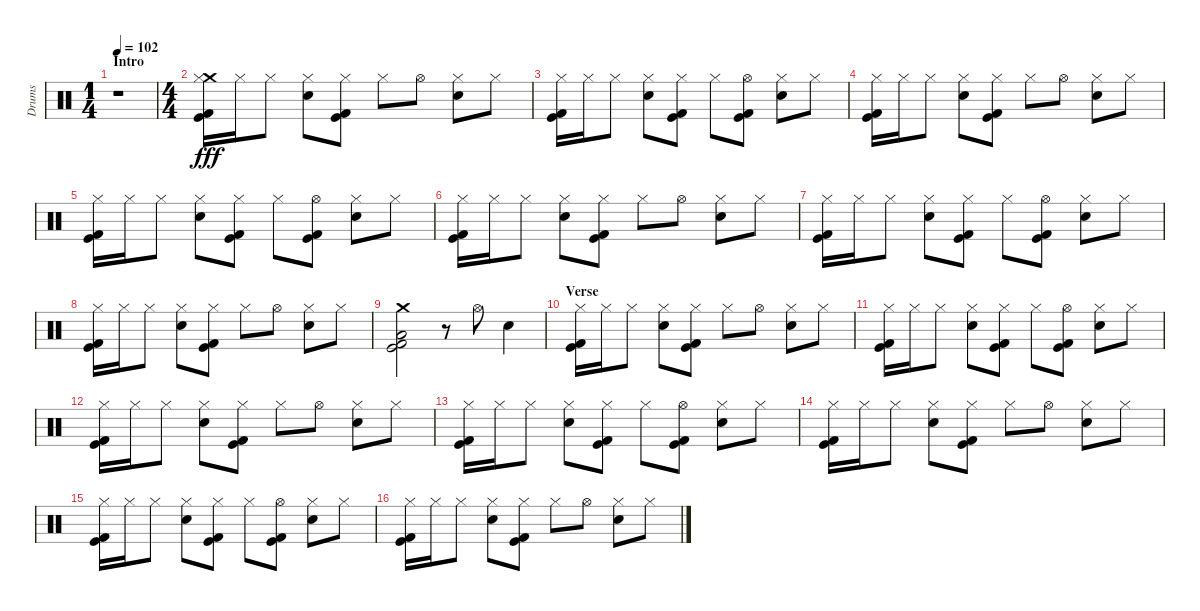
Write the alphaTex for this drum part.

\track ("Drums" "Drums") {instrument percussion}
\staff {score}
\articulation defaults
\ts (1 4)
\section ("" "Intro")
\tempo 102
\clef neutral
\ks c
r.1{dy fff} |
\ts (4 4)
("Crash medium (hit)" "Kick (hit) 2" "Kick (hit)" "Hi-Hat (closed)").16 "Hi-Hat (closed)".16 "Hi-Hat (closed)".8 ("Hand Clap (hit)" "Hi-Hat (closed)").8 ("Kick (hit) 2" "Kick (hit)" "Hi-Hat (closed)").8 "Hi-Hat (closed)".8 "Hi-Hat (open)".8 ("Hand Clap (hit)" "Hi-Hat (closed)").8 "Hi-Hat (closed)".8 |
("Kick (hit) 2" "Kick (hit)" "Hi-Hat (closed)").16 "Hi-Hat (closed)".16 "Hi-Hat (closed)".8 ("Hand Clap (hit)" "Hi-Hat (closed)").8 ("Kick (hit) 2" "Kick (hit)" "Hi-Hat (closed)").8 "Hi-Hat (closed)".8 ("Kick (hit) 2" "Kick (hit)" "Hi-Hat (open)").8 ("Hand Clap (hit)" "Hi-Hat (closed)").8 "Hi-Hat (closed)".8 |
("Kick (hit) 2" "Kick (hit)" "Hi-Hat (closed)").16 "Hi-Hat (closed)".16 "Hi-Hat (closed)".8 ("Hand Clap (hit)" "Hi-Hat (closed)").8 ("Kick (hit) 2" "Kick (hit)" "Hi-Hat (closed)").8 "Hi-Hat (closed)".8 "Hi-Hat (open)".8 ("Hand Clap (hit)" "Hi-Hat (closed)").8 "Hi-Hat (closed)".8 |
("Kick (hit) 2" "Kick (hit)" "Hi-Hat (closed)").16 "Hi-Hat (closed)".16 "Hi-Hat (closed)".8 ("Hand Clap (hit)" "Hi-Hat (closed)").8 ("Kick (hit) 2" "Kick (hit)" "Hi-Hat (closed)").8 "Hi-Hat (closed)".8 ("Kick (hit) 2" "Kick (hit)" "Hi-Hat (open)").8 ("Hand Clap (hit)" "Hi-Hat (closed)").8 "Hi-Hat (closed)".8 |
("Kick (hit) 2" "Kick (hit)" "Hi-Hat (closed)").16 "Hi-Hat (closed)".16 "Hi-Hat (closed)".8 ("Hand Clap (hit)" "Hi-Hat (closed)").8 ("Kick (hit) 2" "Kick (hit)" "Hi-Hat (closed)").8 "Hi-Hat (closed)".8 "Hi-Hat (open)".8 ("Hand Clap (hit)" "Hi-Hat (closed)").8 "Hi-Hat (closed)".8 |
("Kick (hit) 2" "Kick (hit)" "Hi-Hat (closed)").16 "Hi-Hat (closed)".16 "Hi-Hat (closed)".8 ("Hand Clap (hit)" "Hi-Hat (closed)").8 ("Kick (hit) 2" "Kick (hit)" "Hi-Hat (closed)").8 "Hi-Hat (closed)".8 ("Kick (hit) 2" "Kick (hit)" "Hi-Hat (open)").8 ("Hand Clap (hit)" "Hi-Hat (closed)").8 "Hi-Hat (closed)".8 |
("Kick (hit) 2" "Kick (hit)" "Hi-Hat (closed)").16 "Hi-Hat (closed)".16 "Hi-Hat (closed)".8 ("Hand Clap (hit)" "Hi-Hat (closed)").8 ("Kick (hit) 2" "Kick (hit)" "Hi-Hat (closed)").8 "Hi-Hat (closed)".8 "Hi-Hat (open)".8 ("Hand Clap (hit)" "Hi-Hat (closed)").8 "Hi-Hat (closed)".8 |
("Kick (hit) 2" "Kick (hit)" "Crash medium (hit)" "Low Tom (hit)").2 r.8 "Hi-Hat (open)".8 "Hand Clap (hit)".4 |
\section ("" "Verse")
("Kick (hit) 2" "Kick (hit)" "Hi-Hat (closed)").16 "Hi-Hat (closed)".16 "Hi-Hat (closed)".8 ("Hand Clap (hit)" "Hi-Hat (closed)").8 ("Kick (hit) 2" "Kick (hit)" "Hi-Hat (closed)").8 "Hi-Hat (closed)".8 "Hi-Hat (open)".8 ("Hand Clap (hit)" "Hi-Hat (closed)").8 "Hi-Hat (closed)".8 |
("Kick (hit) 2" "Kick (hit)" "Hi-Hat (closed)").16 "Hi-Hat (closed)".16 "Hi-Hat (closed)".8 ("Hand Clap (hit)" "Hi-Hat (closed)").8 ("Kick (hit) 2" "Kick (hit)" "Hi-Hat (closed)").8 "Hi-Hat (closed)".8 ("Kick (hit) 2" "Kick (hit)" "Hi-Hat (open)").8 ("Hand Clap (hit)" "Hi-Hat (closed)").8 "Hi-Hat (closed)".8 |
("Kick (hit) 2" "Kick (hit)" "Hi-Hat (closed)").16 "Hi-Hat (closed)".16 "Hi-Hat (closed)".8 ("Hand Clap (hit)" "Hi-Hat (closed)").8 ("Kick (hit) 2" "Kick (hit)" "Hi-Hat (closed)").8 "Hi-Hat (closed)".8 "Hi-Hat (open)".8 ("Hand Clap (hit)" "Hi-Hat (closed)").8 "Hi-Hat (closed)".8 |
("Kick (hit) 2" "Kick (hit)" "Hi-Hat (closed)").16 "Hi-Hat (closed)".16 "Hi-Hat (closed)".8 ("Hand Clap (hit)" "Hi-Hat (closed)").8 ("Kick (hit) 2" "Kick (hit)" "Hi-Hat (closed)").8 "Hi-Hat (closed)".8 ("Kick (hit) 2" "Kick (hit)" "Hi-Hat (open)").8 ("Hand Clap (hit)" "Hi-Hat (closed)").8 "Hi-Hat (closed)".8 |
("Kick (hit) 2" "Kick (hit)" "Hi-Hat (closed)").16 "Hi-Hat (closed)".16 "Hi-Hat (closed)".8 ("Hand Clap (hit)" "Hi-Hat (closed)").8 ("Kick (hit) 2" "Kick (hit)" "Hi-Hat (closed)").8 "Hi-Hat (closed)".8 "Hi-Hat (open)".8 ("Hand Clap (hit)" "Hi-Hat (closed)").8 "Hi-Hat (closed)".8 |
("Kick (hit) 2" "Kick (hit)" "Hi-Hat (closed)").16 "Hi-Hat (closed)".16 "Hi-Hat (closed)".8 ("Hand Clap (hit)" "Hi-Hat (closed)").8 ("Kick (hit) 2" "Kick (hit)" "Hi-Hat (closed)").8 "Hi-Hat (closed)".8 ("Kick (hit) 2" "Kick (hit)" "Hi-Hat (open)").8 ("Hand Clap (hit)" "Hi-Hat (closed)").8 "Hi-Hat (closed)".8 |
("Kick (hit) 2" "Kick (hit)" "Hi-Hat (closed)").16 "Hi-Hat (closed)".16 "Hi-Hat (closed)".8 ("Hand Clap (hit)" "Hi-Hat (closed)").8 ("Kick (hit) 2" "Kick (hit)" "Hi-Hat (closed)").8 "Hi-Hat (closed)".8 "Hi-Hat (open)".8 ("Hand Clap (hit)" "Hi-Hat (closed)").8 "Hi-Hat (closed)".8
